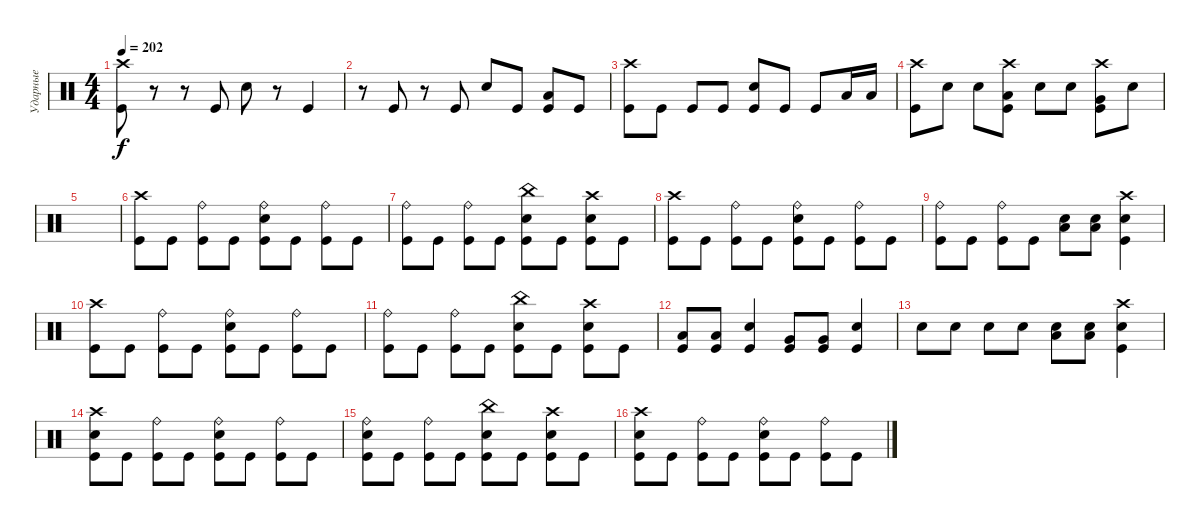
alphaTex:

\track ("Ударные" "Ударные") {instrument percussion}
\staff {score}
\articulation defaults
\ts (4 4)
\tempo 202
\clef neutral
\ks c
("Crash high (hit)" "Kick (hit)").8{dy f} r.8 r.8 "Kick (hit)".8 "Electric Snare (hit)".8 r.8 "Kick (hit)".4 |
r.8 "Kick (hit)".8 r.8 "Kick (hit)".8 "Electric Snare (hit)".8 "Kick (hit)".8 ("Low Tom (hit)" "Kick (hit)").8 "Kick (hit)".8 |
("Crash high (hit)" "Kick (hit)").8 "Kick (hit)".8 "Kick (hit)".8 "Kick (hit)".8 ("Electric Snare (hit)" "Kick (hit)").8 "Kick (hit)".8 "Kick (hit)".8 "Low Tom (hit)".16 "Low Tom (hit)".16 |
("Crash high (hit)" "Kick (hit)").8 "Electric Snare (hit)".8 "Electric Snare (hit)".8 ("Crash high (hit)" "Low Tom (hit)" "Kick (hit)").8 "Electric Snare (hit)".8 "Electric Snare (hit)".8 ("Crash high (hit)" "Very Low Tom (hit)" "Kick (hit)").8 "Electric Snare (hit)".8 |
|
("Crash high (hit)" "Kick (hit)").8 "Kick (hit)".8 ("Ride (bell)" "Kick (hit)").8 "Kick (hit)".8 ("Ride (bell)" "Electric Snare (hit)" "Kick (hit)").8 "Kick (hit)".8 ("Ride (bell)" "Kick (hit)").8 "Kick (hit)".8 |
("Ride (bell)" "Kick (hit)").8 "Kick (hit)".8 ("Ride (bell)" "Kick (hit)").8 "Kick (hit)".8 ("China (hit)" "Electric Snare (hit)" "Kick (hit)").8 "Kick (hit)".8 ("Crash high (hit)" "Electric Snare (hit)" "Kick (hit)").8 "Kick (hit)".8 |
("Crash high (hit)" "Kick (hit)").8 "Kick (hit)".8 ("Ride (bell)" "Kick (hit)").8 "Kick (hit)".8 ("Ride (bell)" "Electric Snare (hit)" "Kick (hit)").8 "Kick (hit)".8 ("Ride (bell)" "Kick (hit)").8 "Kick (hit)".8 |
("Ride (bell)" "Kick (hit)").8 "Kick (hit)".8 ("Ride (bell)" "Kick (hit)").8 "Kick (hit)".8 ("Low Tom (hit)" "Electric Snare (hit)").8 ("Low Tom (hit)" "Electric Snare (hit)").8 ("Crash high (hit)" "Electric Snare (hit)" "Kick (hit)").4 |
("Crash high (hit)" "Kick (hit)").8 "Kick (hit)".8 ("Ride (bell)" "Kick (hit)").8 "Kick (hit)".8 ("Ride (bell)" "Electric Snare (hit)" "Kick (hit)").8 "Kick (hit)".8 ("Ride (bell)" "Kick (hit)").8 "Kick (hit)".8 |
("Ride (bell)" "Kick (hit)").8 "Kick (hit)".8 ("Ride (bell)" "Kick (hit)").8 "Kick (hit)".8 ("China (hit)" "Electric Snare (hit)" "Kick (hit)").8 "Kick (hit)".8 ("Crash high (hit)" "Electric Snare (hit)" "Kick (hit)").8 "Kick (hit)".8 |
("Low Tom (hit)" "Kick (hit)").8 ("Low Tom (hit)" "Kick (hit)").8 ("Electric Snare (hit)" "Kick (hit)").4 ("Very Low Tom (hit)" "Kick (hit)").8 ("Very Low Tom (hit)" "Kick (hit)").8 ("Electric Snare (hit)" "Kick (hit)").4 |
"Electric Snare (hit)".8 "Electric Snare (hit)".8 "Electric Snare (hit)".8 "Electric Snare (hit)".8 ("Low Tom (hit)" "Electric Snare (hit)").8 ("Low Tom (hit)" "Electric Snare (hit)").8 ("Crash high (hit)" "Electric Snare (hit)" "Kick (hit)").4 |
("Crash high (hit)" "Electric Snare (hit)" "Kick (hit)").8 "Kick (hit)".8 ("Ride (bell)" "Kick (hit)").8 "Kick (hit)".8 ("Ride (bell)" "Electric Snare (hit)" "Kick (hit)").8 "Kick (hit)".8 ("Ride (bell)" "Kick (hit)").8 "Kick (hit)".8 |
("Ride (bell)" "Electric Snare (hit)" "Kick (hit)").8 "Kick (hit)".8 ("Ride (bell)" "Kick (hit)").8 "Kick (hit)".8 ("China (hit)" "Electric Snare (hit)" "Kick (hit)").8 "Kick (hit)".8 ("Crash high (hit)" "Electric Snare (hit)" "Kick (hit)").8 "Kick (hit)".8 |
("Crash high (hit)" "Electric Snare (hit)" "Kick (hit)").8 "Kick (hit)".8 ("Ride (bell)" "Kick (hit)").8 "Kick (hit)".8 ("Ride (bell)" "Electric Snare (hit)" "Kick (hit)").8 "Kick (hit)".8 ("Ride (bell)" "Kick (hit)").8 "Kick (hit)".8
